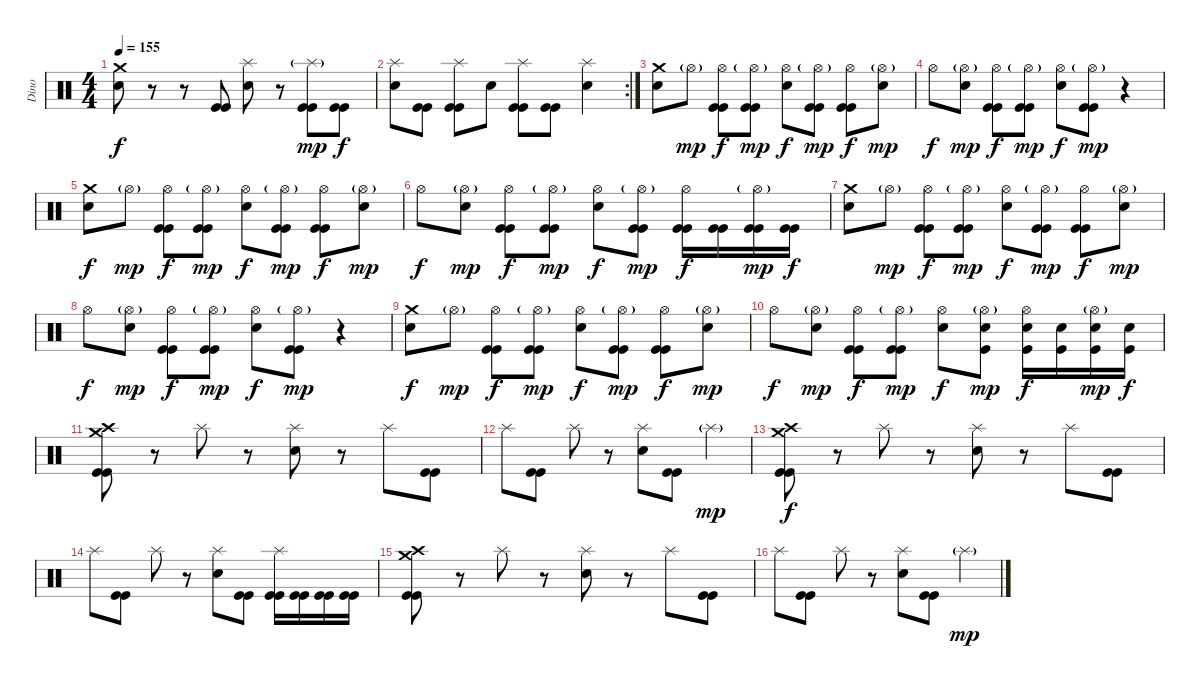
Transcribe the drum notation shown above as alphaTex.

\track ("Dino" "Dino") {instrument percussion}
\staff {score}
\articulation defaults
\ts (4 4)
\tempo 155
\clef neutral
\ks c
("Crash medium (hit)" "Electric Snare (hit)").8{dy f} r.8 r.8 ("Kick (hit)" "Kick (hit)").8 ("Splash (hit)" "Electric Snare (hit)").8 r.8 ("Splash (hit)"{g} "Kick (hit)" "Kick (hit)").8{dy mp} ("Kick (hit)" "Kick (hit)").8{dy f} |
\rc 2
("Splash (hit)" "Electric Snare (hit)").8 ("Kick (hit)" "Kick (hit)").8 ("Splash (hit)" "Kick (hit)" "Kick (hit)").8 "Electric Snare (hit)".8 ("Splash (hit)" "Kick (hit)" "Kick (hit)").8 ("Kick (hit)" "Kick (hit)").8 ("Splash (hit)" "Electric Snare (hit)").4 |
("Crash medium (hit)" "Electric Snare (hit)").8 "Hi-Hat (open)"{g}.8{dy mp} ("Hi-Hat (open)" "Kick (hit)" "Kick (hit)").8{dy f} ("Hi-Hat (open)"{g} "Kick (hit)" "Kick (hit)").8{dy mp} ("Hi-Hat (open)" "Electric Snare (hit)").8{dy f} ("Hi-Hat (open)"{g} "Kick (hit)" "Kick (hit)").8{dy mp} ("Hi-Hat (open)" "Kick (hit)" "Kick (hit)").8{dy f} ("Hi-Hat (open)"{g} "Electric Snare (hit)").8{dy mp} |
"Hi-Hat (open)".8{dy f} ("Hi-Hat (open)"{g} "Electric Snare (hit)").8{dy mp} ("Hi-Hat (open)" "Kick (hit)" "Kick (hit)").8{dy f} ("Hi-Hat (open)"{g} "Kick (hit)" "Kick (hit)").8{dy mp} ("Hi-Hat (open)" "Electric Snare (hit)").8{dy f} ("Hi-Hat (open)"{g} "Kick (hit)" "Kick (hit)").8{dy mp} r.4 |
("Crash medium (hit)" "Electric Snare (hit)").8{dy f} "Hi-Hat (open)"{g}.8{dy mp} ("Hi-Hat (open)" "Kick (hit)" "Kick (hit)").8{dy f} ("Hi-Hat (open)"{g} "Kick (hit)" "Kick (hit)").8{dy mp} ("Hi-Hat (open)" "Electric Snare (hit)").8{dy f} ("Hi-Hat (open)"{g} "Kick (hit)" "Kick (hit)").8{dy mp} ("Hi-Hat (open)" "Kick (hit)" "Kick (hit)").8{dy f} ("Hi-Hat (open)"{g} "Electric Snare (hit)").8{dy mp} |
"Hi-Hat (open)".8{dy f} ("Hi-Hat (open)"{g} "Electric Snare (hit)").8{dy mp} ("Hi-Hat (open)" "Kick (hit)" "Kick (hit)").8{dy f} ("Hi-Hat (open)"{g} "Kick (hit)" "Kick (hit)").8{dy mp} ("Hi-Hat (open)" "Electric Snare (hit)").8{dy f} ("Hi-Hat (open)"{g} "Kick (hit)" "Kick (hit)").8{dy mp} ("Hi-Hat (open)" "Kick (hit)" "Kick (hit)").16{dy f} ("Kick (hit)" "Kick (hit)").16 ("Hi-Hat (open)"{g} "Kick (hit)" "Kick (hit)").16{dy mp} ("Kick (hit)" "Kick (hit)").16{dy f} |
("Crash medium (hit)" "Electric Snare (hit)").8 "Hi-Hat (open)"{g}.8{dy mp} ("Hi-Hat (open)" "Kick (hit)" "Kick (hit)").8{dy f} ("Hi-Hat (open)"{g} "Kick (hit)" "Kick (hit)").8{dy mp} ("Hi-Hat (open)" "Electric Snare (hit)").8{dy f} ("Hi-Hat (open)"{g} "Kick (hit)" "Kick (hit)").8{dy mp} ("Hi-Hat (open)" "Kick (hit)" "Kick (hit)").8{dy f} ("Hi-Hat (open)"{g} "Electric Snare (hit)").8{dy mp} |
"Hi-Hat (open)".8{dy f} ("Hi-Hat (open)"{g} "Electric Snare (hit)").8{dy mp} ("Hi-Hat (open)" "Kick (hit)" "Kick (hit)").8{dy f} ("Hi-Hat (open)"{g} "Kick (hit)" "Kick (hit)").8{dy mp} ("Hi-Hat (open)" "Electric Snare (hit)").8{dy f} ("Hi-Hat (open)"{g} "Kick (hit)" "Kick (hit)").8{dy mp} r.4 |
("Crash medium (hit)" "Electric Snare (hit)").8{dy f} "Hi-Hat (open)"{g}.8{dy mp} ("Hi-Hat (open)" "Kick (hit)" "Kick (hit)").8{dy f} ("Hi-Hat (open)"{g} "Kick (hit)" "Kick (hit)").8{dy mp} ("Hi-Hat (open)" "Electric Snare (hit)").8{dy f} ("Hi-Hat (open)"{g} "Kick (hit)" "Kick (hit)").8{dy mp} ("Hi-Hat (open)" "Kick (hit)" "Kick (hit)").8{dy f} ("Hi-Hat (open)"{g} "Electric Snare (hit)").8{dy mp} |
"Hi-Hat (open)".8{dy f} ("Hi-Hat (open)"{g} "Electric Snare (hit)").8{dy mp} ("Hi-Hat (open)" "Kick (hit)" "Kick (hit)").8{dy f} ("Hi-Hat (open)"{g} "Kick (hit)" "Kick (hit)").8{dy mp} ("Hi-Hat (open)" "Electric Snare (hit)").8{dy f} ("Hi-Hat (open)"{g} "Electric Snare (hit)" "Kick (hit)").8{dy mp} ("Hi-Hat (open)" "Electric Snare (hit)" "Kick (hit)").16{dy f} ("Electric Snare (hit)" "Kick (hit)").16 ("Hi-Hat (open)"{g} "Electric Snare (hit)" "Kick (hit)").16{dy mp} ("Electric Snare (hit)" "Kick (hit)").16{dy f} |
("Crash medium (hit)" "Crash high (hit)" "Kick (hit)" "Kick (hit)").8 r.8 "Splash (hit)".8 r.8 ("Splash (hit)" "Electric Snare (hit)").8 r.8 "Splash (hit)".8 ("Kick (hit)" "Kick (hit)").8 |
"Splash (hit)".8 ("Kick (hit)" "Kick (hit)").8 "Splash (hit)".8 r.8 ("Splash (hit)" "Electric Snare (hit)").8 ("Kick (hit)" "Kick (hit)").8 "Splash (hit)"{g}.4{dy mp} |
("Crash medium (hit)" "Crash high (hit)" "Kick (hit)" "Kick (hit)").8{dy f} r.8 "Splash (hit)".8 r.8 ("Splash (hit)" "Electric Snare (hit)").8 r.8 "Splash (hit)".8 ("Kick (hit)" "Kick (hit)").8 |
"Splash (hit)".8 ("Kick (hit)" "Kick (hit)").8 "Splash (hit)".8 r.8 ("Splash (hit)" "Electric Snare (hit)").8 ("Kick (hit)" "Kick (hit)").8 ("Splash (hit)" "Kick (hit)" "Kick (hit)").16 ("Kick (hit)" "Kick (hit)").16 ("Kick (hit)" "Kick (hit)").16 ("Kick (hit)" "Kick (hit)").16 |
("Crash medium (hit)" "Crash high (hit)" "Kick (hit)" "Kick (hit)").8 r.8 "Splash (hit)".8 r.8 ("Splash (hit)" "Electric Snare (hit)").8 r.8 "Splash (hit)".8 ("Kick (hit)" "Kick (hit)").8 |
"Splash (hit)".8 ("Kick (hit)" "Kick (hit)").8 "Splash (hit)".8 r.8 ("Splash (hit)" "Electric Snare (hit)").8 ("Kick (hit)" "Kick (hit)").8 "Splash (hit)"{g}.4{dy mp}
